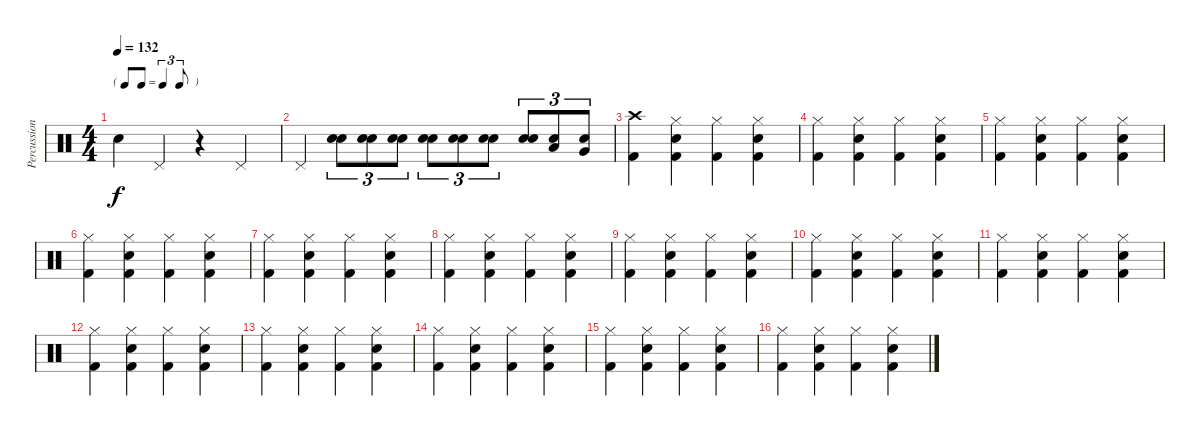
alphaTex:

\track ("Percussion" "Percussion") {instrument percussion}
\staff {score}
\articulation defaults
\ts (4 4)
\tf triplet8th
\tempo 132
\clef neutral
\ks c "Snare (hit)"{t}.4{dy f} "Pedal Hi-Hat (hit)".4
r.4 "Pedal Hi-Hat (hit)".4 |
"Pedal Hi-Hat (hit)".4 ("Snare (hit) 2" "Electric Snare (hit)").8{tu (3 2)} ("Snare (hit) 2" "Electric Snare (hit)").8{tu (3 2)} ("Snare (hit) 2" "Electric Snare (hit)").8{tu (3 2)} ("Snare (hit) 2" "Electric Snare (hit)").8{tu (3 2)} ("Snare (hit) 2" "Electric Snare (hit)").8{tu (3 2)} ("Snare (hit) 2" "Electric Snare (hit)").8{tu (3 2)} ("Snare (hit) 2" "Electric Snare (hit)").8{tu (3 2)} ("Low Tom (hit)" "Electric Snare (hit)").8{tu (3 2)} ("Very Low Tom (hit)" "Electric Snare (hit)").8{tu (3 2)} |
("Crash high (hit)" "Kick (hit) 2").4 ("Hi-Hat (closed)" "Snare (hit) 2" "Kick (hit) 2").4 ("Hi-Hat (closed)" "Kick (hit) 2").4 ("Hi-Hat (closed)" "Snare (hit) 2" "Kick (hit) 2").4 |
("Hi-Hat (closed)" "Kick (hit) 2").4 ("Hi-Hat (closed)" "Snare (hit) 2" "Kick (hit) 2").4 ("Hi-Hat (closed)" "Kick (hit) 2").4 ("Hi-Hat (closed)" "Snare (hit) 2" "Kick (hit) 2").4 |
("Hi-Hat (closed)" "Kick (hit) 2").4 ("Hi-Hat (closed)" "Snare (hit) 2" "Kick (hit) 2").4 ("Hi-Hat (closed)" "Kick (hit) 2").4 ("Hi-Hat (closed)" "Snare (hit) 2" "Kick (hit) 2").4 |
("Hi-Hat (closed)" "Kick (hit) 2").4 ("Hi-Hat (closed)" "Snare (hit) 2" "Kick (hit) 2").4 ("Hi-Hat (closed)" "Kick (hit) 2").4 ("Hi-Hat (closed)" "Snare (hit) 2" "Kick (hit) 2").4 |
("Hi-Hat (closed)" "Kick (hit) 2").4 ("Hi-Hat (closed)" "Snare (hit) 2" "Kick (hit) 2").4 ("Hi-Hat (closed)" "Kick (hit) 2").4 ("Hi-Hat (closed)" "Snare (hit) 2" "Kick (hit) 2").4 |
("Hi-Hat (closed)" "Kick (hit) 2").4 ("Hi-Hat (closed)" "Snare (hit) 2" "Kick (hit) 2").4 ("Hi-Hat (closed)" "Kick (hit) 2").4 ("Hi-Hat (closed)" "Snare (hit) 2" "Kick (hit) 2").4 |
("Hi-Hat (closed)" "Kick (hit) 2").4 ("Hi-Hat (closed)" "Snare (hit) 2" "Kick (hit) 2").4 ("Hi-Hat (closed)" "Kick (hit) 2").4 ("Hi-Hat (closed)" "Snare (hit) 2" "Kick (hit) 2").4 |
("Hi-Hat (closed)" "Kick (hit) 2").4 ("Hi-Hat (closed)" "Snare (hit) 2" "Kick (hit) 2").4 ("Hi-Hat (closed)" "Kick (hit) 2").4 ("Hi-Hat (closed)" "Snare (hit) 2" "Kick (hit) 2").4 |
("Hi-Hat (closed)" "Kick (hit) 2").4 ("Hi-Hat (closed)" "Snare (hit) 2" "Kick (hit) 2").4 ("Hi-Hat (closed)" "Kick (hit) 2").4 ("Hi-Hat (closed)" "Snare (hit) 2" "Kick (hit) 2").4 |
("Hi-Hat (closed)" "Kick (hit) 2").4 ("Hi-Hat (closed)" "Snare (hit) 2" "Kick (hit) 2").4 ("Hi-Hat (closed)" "Kick (hit) 2").4 ("Hi-Hat (closed)" "Snare (hit) 2" "Kick (hit) 2").4 |
("Hi-Hat (closed)" "Kick (hit) 2").4 ("Hi-Hat (closed)" "Snare (hit) 2" "Kick (hit) 2").4 ("Hi-Hat (closed)" "Kick (hit) 2").4 ("Hi-Hat (closed)" "Snare (hit) 2" "Kick (hit) 2").4 |
("Hi-Hat (closed)" "Kick (hit) 2").4 ("Hi-Hat (closed)" "Snare (hit) 2" "Kick (hit) 2").4 ("Hi-Hat (closed)" "Kick (hit) 2").4 ("Hi-Hat (closed)" "Snare (hit) 2" "Kick (hit) 2").4 |
("Hi-Hat (closed)" "Kick (hit) 2").4 ("Hi-Hat (closed)" "Snare (hit) 2" "Kick (hit) 2").4 ("Hi-Hat (closed)" "Kick (hit) 2").4 ("Hi-Hat (closed)" "Snare (hit) 2" "Kick (hit) 2").4 |
("Hi-Hat (closed)" "Kick (hit) 2").4 ("Hi-Hat (closed)" "Snare (hit) 2" "Kick (hit) 2").4 ("Hi-Hat (closed)" "Kick (hit) 2").4 ("Hi-Hat (closed)" "Snare (hit) 2" "Kick (hit) 2").4
